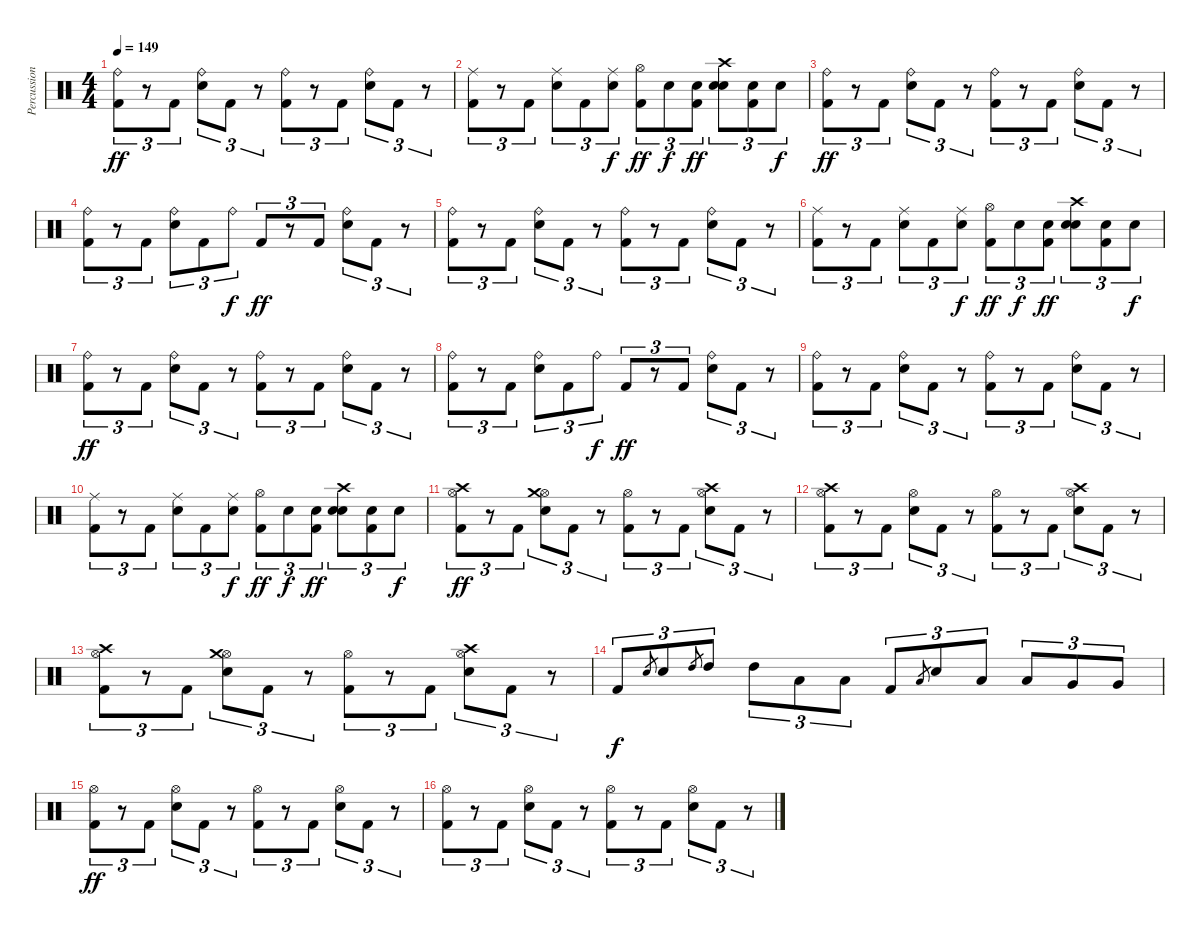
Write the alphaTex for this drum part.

\track ("Percussion" "Percussion") {instrument percussion}
\staff {score}
\articulation defaults
\ts (4 4)
\tempo 149
\clef neutral
\ks c
("Kick (hit) 2" "Ride (bell)").8{tu (3 2) dy ff} r.8{tu (3 2)} "Kick (hit) 2".8{tu (3 2)} ("Snare (hit) 2" "Ride (bell)").8{tu (3 2)} "Kick (hit) 2".8{tu (3 2)} r.8{tu (3 2)} ("Kick (hit) 2" "Ride (bell)").8{tu (3 2)} r.8{tu (3 2)} "Kick (hit) 2".8{tu (3 2)} ("Snare (hit) 2" "Ride (bell)").8{tu (3 2)} "Kick (hit) 2".8{tu (3 2)} r.8{tu (3 2)} |
("Kick (hit) 2" "Ride (middle)").8{tu (3 2)} r.8{tu (3 2)} "Kick (hit) 2".8{tu (3 2)} ("Electric Snare (hit)" "Ride (middle)").8{tu (3 2)} "Kick (hit) 2".8{tu (3 2)} ("Electric Snare (hit)" "Ride (middle)").8{tu (3 2) dy f} ("Kick (hit) 2" "Hi-Hat (open)").8{tu (3 2) dy ff} "Electric Snare (hit)".8{tu (3 2) dy f} ("Kick (hit) 2" "Electric Snare (hit)").8{tu (3 2) dy ff} ("Snare (hit) 2" "Electric Snare (hit)" "Crash high (hit)").8{tu (3 2)} ("Kick (hit) 2" "Electric Snare (hit)").8{tu (3 2)} "Electric Snare (hit)".8{tu (3 2) dy f} |
("Kick (hit) 2" "Ride (bell)").8{tu (3 2) dy ff} r.8{tu (3 2)} "Kick (hit) 2".8{tu (3 2)} ("Snare (hit) 2" "Ride (bell)").8{tu (3 2)} "Kick (hit) 2".8{tu (3 2)} r.8{tu (3 2)} ("Kick (hit) 2" "Ride (bell)").8{tu (3 2)} r.8{tu (3 2)} "Kick (hit) 2".8{tu (3 2)} ("Snare (hit) 2" "Ride (bell)").8{tu (3 2)} "Kick (hit) 2".8{tu (3 2)} r.8{tu (3 2)} |
("Kick (hit) 2" "Ride (bell)").8{tu (3 2)} r.8{tu (3 2)} "Kick (hit) 2".8{tu (3 2)} ("Electric Snare (hit)" "Ride (bell)").8{tu (3 2)} "Kick (hit) 2".8{tu (3 2)} "Ride (bell)".8{tu (3 2) dy f} "Kick (hit) 2".8{tu (3 2) dy ff} r.8{tu (3 2)} "Kick (hit) 2".8{tu (3 2)} ("Electric Snare (hit)" "Ride (bell)").8{tu (3 2)} "Kick (hit) 2".8{tu (3 2)} r.8{tu (3 2)} |
("Kick (hit) 2" "Ride (bell)").8{tu (3 2)} r.8{tu (3 2)} "Kick (hit) 2".8{tu (3 2)} ("Snare (hit) 2" "Ride (bell)").8{tu (3 2)} "Kick (hit) 2".8{tu (3 2)} r.8{tu (3 2)} ("Kick (hit) 2" "Ride (bell)").8{tu (3 2)} r.8{tu (3 2)} "Kick (hit) 2".8{tu (3 2)} ("Snare (hit) 2" "Ride (bell)").8{tu (3 2)} "Kick (hit) 2".8{tu (3 2)} r.8{tu (3 2)} |
("Kick (hit) 2" "Ride (middle)").8{tu (3 2)} r.8{tu (3 2)} "Kick (hit) 2".8{tu (3 2)} ("Electric Snare (hit)" "Ride (middle)").8{tu (3 2)} "Kick (hit) 2".8{tu (3 2)} ("Electric Snare (hit)" "Ride (middle)").8{tu (3 2) dy f} ("Kick (hit) 2" "Hi-Hat (open)").8{tu (3 2) dy ff} "Electric Snare (hit)".8{tu (3 2) dy f} ("Kick (hit) 2" "Electric Snare (hit)").8{tu (3 2) dy ff} ("Snare (hit) 2" "Electric Snare (hit)" "Crash high (hit)").8{tu (3 2)} ("Kick (hit) 2" "Electric Snare (hit)").8{tu (3 2)} "Electric Snare (hit)".8{tu (3 2) dy f} |
("Kick (hit) 2" "Ride (bell)").8{tu (3 2) dy ff} r.8{tu (3 2)} "Kick (hit) 2".8{tu (3 2)} ("Snare (hit) 2" "Ride (bell)").8{tu (3 2)} "Kick (hit) 2".8{tu (3 2)} r.8{tu (3 2)} ("Kick (hit) 2" "Ride (bell)").8{tu (3 2)} r.8{tu (3 2)} "Kick (hit) 2".8{tu (3 2)} ("Snare (hit) 2" "Ride (bell)").8{tu (3 2)} "Kick (hit) 2".8{tu (3 2)} r.8{tu (3 2)} |
("Kick (hit) 2" "Ride (bell)").8{tu (3 2)} r.8{tu (3 2)} "Kick (hit) 2".8{tu (3 2)} ("Electric Snare (hit)" "Ride (bell)").8{tu (3 2)} "Kick (hit) 2".8{tu (3 2)} "Ride (bell)".8{tu (3 2) dy f} "Kick (hit) 2".8{tu (3 2) dy ff} r.8{tu (3 2)} "Kick (hit) 2".8{tu (3 2)} ("Electric Snare (hit)" "Ride (bell)").8{tu (3 2)} "Kick (hit) 2".8{tu (3 2)} r.8{tu (3 2)} |
("Kick (hit) 2" "Ride (bell)").8{tu (3 2)} r.8{tu (3 2)} "Kick (hit) 2".8{tu (3 2)} ("Snare (hit) 2" "Ride (bell)").8{tu (3 2)} "Kick (hit) 2".8{tu (3 2)} r.8{tu (3 2)} ("Kick (hit) 2" "Ride (bell)").8{tu (3 2)} r.8{tu (3 2)} "Kick (hit) 2".8{tu (3 2)} ("Snare (hit) 2" "Ride (bell)").8{tu (3 2)} "Kick (hit) 2".8{tu (3 2)} r.8{tu (3 2)} |
("Kick (hit) 2" "Ride (middle)").8{tu (3 2)} r.8{tu (3 2)} "Kick (hit) 2".8{tu (3 2)} ("Electric Snare (hit)" "Ride (middle)").8{tu (3 2)} "Kick (hit) 2".8{tu (3 2)} ("Electric Snare (hit)" "Ride (middle)").8{tu (3 2) dy f} ("Kick (hit) 2" "Hi-Hat (open)").8{tu (3 2) dy ff} "Electric Snare (hit)".8{tu (3 2) dy f} ("Kick (hit) 2" "Electric Snare (hit)").8{tu (3 2) dy ff} ("Snare (hit) 2" "Electric Snare (hit)" "Crash high (hit)").8{tu (3 2)} ("Kick (hit) 2" "Electric Snare (hit)").8{tu (3 2)} "Electric Snare (hit)".8{tu (3 2) dy f} |
("Kick (hit) 2" "Hi-Hat (open)" "Crash high (hit)").8{tu (3 2) dy ff} r.8{tu (3 2)} "Kick (hit) 2".8{tu (3 2)} ("Electric Snare (hit)" "Hi-Hat (open)" "Crash medium (hit)").8{tu (3 2)} "Kick (hit) 2".8{tu (3 2)} r.8{tu (3 2)} ("Kick (hit) 2" "Hi-Hat (open)").8{tu (3 2)} r.8{tu (3 2)} "Kick (hit) 2".8{tu (3 2)} ("Electric Snare (hit)" "Hi-Hat (open)" "Crash high (hit)").8{tu (3 2)} "Kick (hit) 2".8{tu (3 2)} r.8{tu (3 2)} |
("Kick (hit) 2" "Hi-Hat (open)" "Crash high (hit)").8{tu (3 2)} r.8{tu (3 2)} "Kick (hit) 2".8{tu (3 2)} ("Electric Snare (hit)" "Hi-Hat (open)").8{tu (3 2)} "Kick (hit) 2".8{tu (3 2)} r.8{tu (3 2)} ("Kick (hit) 2" "Hi-Hat (open)").8{tu (3 2)} r.8{tu (3 2)} "Kick (hit) 2".8{tu (3 2)} ("Electric Snare (hit)" "Hi-Hat (open)" "Crash high (hit)").8{tu (3 2)} "Kick (hit) 2".8{tu (3 2)} r.8{tu (3 2)} |
("Kick (hit) 2" "Hi-Hat (open)" "Crash high (hit)").8{tu (3 2)} r.8{tu (3 2)} "Kick (hit) 2".8{tu (3 2)} ("Electric Snare (hit)" "Hi-Hat (open)" "Crash medium (hit)").8{tu (3 2)} "Kick (hit) 2".8{tu (3 2)} r.8{tu (3 2)} ("Kick (hit) 2" "Hi-Hat (open)").8{tu (3 2)} r.8{tu (3 2)} "Kick (hit) 2".8{tu (3 2)} ("Electric Snare (hit)" "Hi-Hat (open)" "Crash high (hit)").8{tu (3 2)} "Kick (hit) 2".8{tu (3 2)} r.8{tu (3 2)} |
"Kick (hit) 2".8{tu (3 2) dy f} "Electric Snare (hit)".8{gr} "Electric Snare (hit)".8{tu (3 2)} "High Tom (hit)".8{gr} "High Tom (hit)".8{tu (3 2)} "High Tom (hit)".8{tu (3 2)} "Low Tom (hit)".8{tu (3 2)} "Low Tom (hit)".8{tu (3 2)} "Kick (hit) 2".8{tu (3 2)} "Low Tom (hit)".8{gr} "Electric Snare (hit)".8{tu (3 2)} "Low Tom (hit)".8{tu (3 2)} "Low Tom (hit)".8{tu (3 2)} "Very Low Tom (hit)".8{tu (3 2)} "Very Low Tom (hit)".8{tu (3 2)} |
("Kick (hit) 2" "Hi-Hat (open)").8{tu (3 2) dy ff} r.8{tu (3 2)} "Kick (hit) 2".8{tu (3 2)} ("Snare (hit) 2" "Hi-Hat (open)").8{tu (3 2)} "Kick (hit) 2".8{tu (3 2)} r.8{tu (3 2)} ("Kick (hit) 2" "Hi-Hat (open)").8{tu (3 2)} r.8{tu (3 2)} "Kick (hit) 2".8{tu (3 2)} ("Snare (hit) 2" "Hi-Hat (open)").8{tu (3 2)} "Kick (hit) 2".8{tu (3 2)} r.8{tu (3 2)} |
("Kick (hit) 2" "Hi-Hat (open)").8{tu (3 2)} r.8{tu (3 2)} "Kick (hit) 2".8{tu (3 2)} ("Snare (hit) 2" "Hi-Hat (open)").8{tu (3 2)} "Kick (hit) 2".8{tu (3 2)} r.8{tu (3 2)} ("Kick (hit) 2" "Hi-Hat (open)").8{tu (3 2)} r.8{tu (3 2)} "Kick (hit) 2".8{tu (3 2)} ("Snare (hit) 2" "Hi-Hat (open)").8{tu (3 2)} "Kick (hit) 2".8{tu (3 2)} r.8{tu (3 2)}
